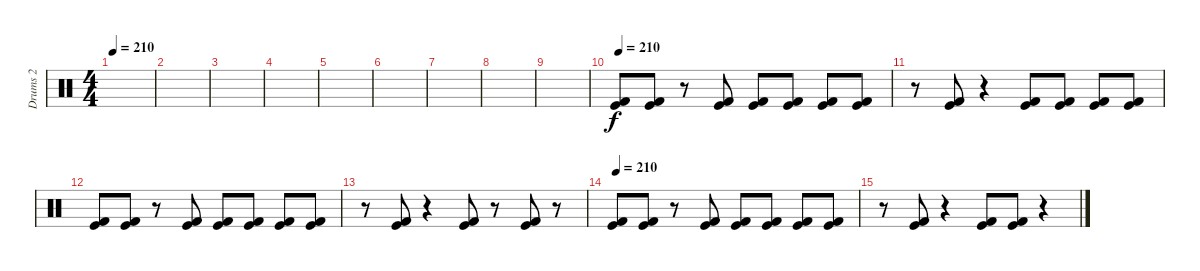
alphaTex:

\track ("Drums 2" "Drums 2") {instrument percussion}
\staff {score}
\articulation defaults
\ts (4 4)
\tempo 210
\clef neutral
\ks c
|
|
|
|
|
|
|
|
|
\tempo 210
("Kick (hit) 2" "Kick (hit)").8 ("Kick (hit) 2" "Kick (hit)").8 r.8 ("Kick (hit) 2" "Kick (hit)").8 ("Kick (hit) 2" "Kick (hit)").8 ("Kick (hit) 2" "Kick (hit)").8 ("Kick (hit) 2" "Kick (hit)").8 ("Kick (hit) 2" "Kick (hit)").8 |
r.8 ("Kick (hit) 2" "Kick (hit)").8 r.4 ("Kick (hit) 2" "Kick (hit)").8 ("Kick (hit) 2" "Kick (hit)").8 ("Kick (hit) 2" "Kick (hit)").8 ("Kick (hit) 2" "Kick (hit)").8 |
("Kick (hit) 2" "Kick (hit)").8 ("Kick (hit) 2" "Kick (hit)").8 r.8 ("Kick (hit) 2" "Kick (hit)").8 ("Kick (hit) 2" "Kick (hit)").8 ("Kick (hit) 2" "Kick (hit)").8 ("Kick (hit) 2" "Kick (hit)").8 ("Kick (hit) 2" "Kick (hit)").8 |
r.8 ("Kick (hit) 2" "Kick (hit)").8 r.4 ("Kick (hit) 2" "Kick (hit)").8 r.8 ("Kick (hit) 2" "Kick (hit)").8 r.8 |
\tempo 210
("Kick (hit) 2" "Kick (hit)").8 ("Kick (hit) 2" "Kick (hit)").8 r.8 ("Kick (hit) 2" "Kick (hit)").8 ("Kick (hit) 2" "Kick (hit)").8 ("Kick (hit) 2" "Kick (hit)").8 ("Kick (hit) 2" "Kick (hit)").8 ("Kick (hit) 2" "Kick (hit)").8 |
r.8 ("Kick (hit) 2" "Kick (hit)").8 r.4 ("Kick (hit) 2" "Kick (hit)").8 ("Kick (hit) 2" "Kick (hit)").8 r.4
